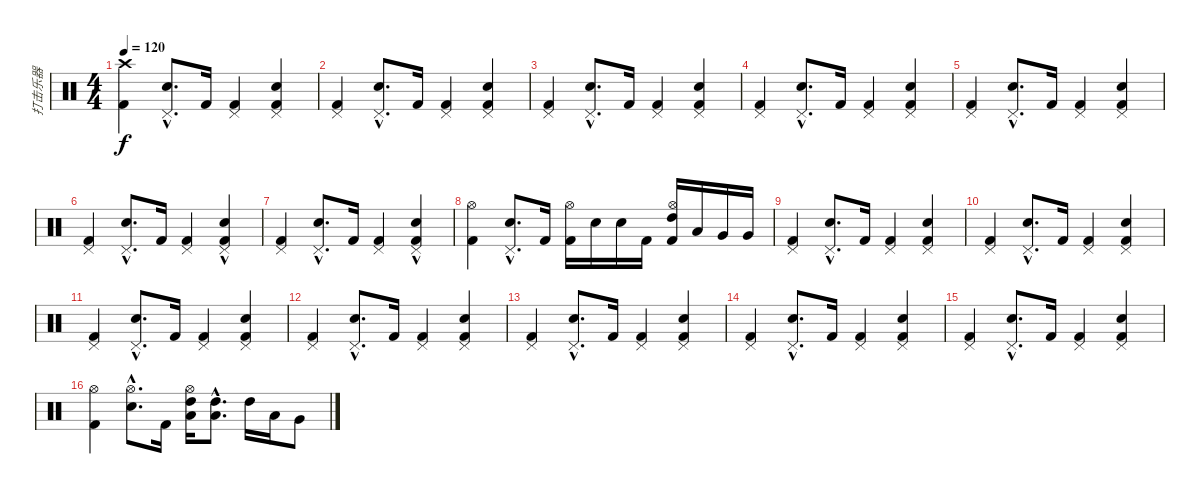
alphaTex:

\track ("打击乐器" "打击乐器") {instrument percussion}
\staff {score}
\articulation defaults
\ts (4 4)
\tempo 120
\clef neutral
\ks c
("Crash high (hit)" "Kick (hit) 2").4{dy f} ("Pedal Hi-Hat (hit)"{hac} "Snare (hit) 2"{hac}).8{d} "Kick (hit) 2".16 ("Pedal Hi-Hat (hit)" "Kick (hit) 2").4 ("Pedal Hi-Hat (hit)" "Snare (hit) 2" "Kick (hit) 2").4 |
("Pedal Hi-Hat (hit)" "Kick (hit) 2").4 ("Pedal Hi-Hat (hit)"{hac} "Snare (hit) 2"{hac}).8{d} "Kick (hit) 2".16 ("Pedal Hi-Hat (hit)" "Kick (hit) 2").4 ("Pedal Hi-Hat (hit)" "Snare (hit) 2" "Kick (hit) 2").4 |
("Pedal Hi-Hat (hit)" "Kick (hit) 2").4 ("Pedal Hi-Hat (hit)"{hac} "Snare (hit) 2"{hac}).8{d} "Kick (hit) 2".16 ("Pedal Hi-Hat (hit)" "Kick (hit) 2").4 ("Pedal Hi-Hat (hit)" "Snare (hit) 2" "Kick (hit) 2").4 |
("Pedal Hi-Hat (hit)" "Kick (hit) 2").4 ("Pedal Hi-Hat (hit)"{hac} "Snare (hit) 2"{hac}).8{d} "Kick (hit) 2".16 ("Pedal Hi-Hat (hit)" "Kick (hit) 2").4 ("Pedal Hi-Hat (hit)" "Snare (hit) 2" "Kick (hit) 2").4 |
("Pedal Hi-Hat (hit)" "Kick (hit) 2").4 ("Pedal Hi-Hat (hit)"{hac} "Snare (hit) 2"{hac}).8{d} "Kick (hit) 2".16 ("Pedal Hi-Hat (hit)" "Kick (hit) 2").4 ("Pedal Hi-Hat (hit)" "Snare (hit) 2" "Kick (hit) 2").4 |
("Pedal Hi-Hat (hit)" "Kick (hit) 2").4 ("Pedal Hi-Hat (hit)"{hac} "Snare (hit) 2"{hac}).8{d} "Kick (hit) 2".16 ("Pedal Hi-Hat (hit)" "Kick (hit) 2").4 ("Pedal Hi-Hat (hit)"{hac} "Snare (hit) 2" "Kick (hit) 2").4 |
("Pedal Hi-Hat (hit)" "Kick (hit) 2").4 ("Pedal Hi-Hat (hit)"{hac} "Snare (hit) 2"{hac}).8{d} "Kick (hit) 2".16 ("Pedal Hi-Hat (hit)" "Kick (hit) 2").4 ("Pedal Hi-Hat (hit)"{hac} "Snare (hit) 2" "Kick (hit) 2").4 |
("Hi-Hat (open)" "Kick (hit) 2").4 ("Pedal Hi-Hat (hit)"{hac} "Snare (hit) 2"{hac}).8{d} "Kick (hit) 2".16 ("Hi-Hat (open)" "Kick (hit) 2").16 "Snare (hit) 2".16 "Snare (hit) 2".16 "Kick (hit) 2".16 ("Hi-Hat (open)" "High Tom (hit)" "Kick (hit) 2").16 "Low Tom (hit)".16 "Very Low Tom (hit)".16 "Very Low Tom (hit)".16 |
("Pedal Hi-Hat (hit)" "Kick (hit) 2").4 ("Pedal Hi-Hat (hit)"{hac} "Snare (hit) 2"{hac}).8{d} "Kick (hit) 2".16 ("Pedal Hi-Hat (hit)" "Kick (hit) 2").4 ("Pedal Hi-Hat (hit)" "Snare (hit) 2" "Kick (hit) 2").4 |
("Pedal Hi-Hat (hit)" "Kick (hit) 2").4 ("Pedal Hi-Hat (hit)"{hac} "Snare (hit) 2"{hac}).8{d} "Kick (hit) 2".16 ("Pedal Hi-Hat (hit)" "Kick (hit) 2").4 ("Pedal Hi-Hat (hit)" "Snare (hit) 2" "Kick (hit) 2").4 |
("Pedal Hi-Hat (hit)" "Kick (hit) 2").4 ("Pedal Hi-Hat (hit)"{hac} "Snare (hit) 2"{hac}).8{d} "Kick (hit) 2".16 ("Pedal Hi-Hat (hit)" "Kick (hit) 2").4 ("Pedal Hi-Hat (hit)" "Snare (hit) 2" "Kick (hit) 2").4 |
("Pedal Hi-Hat (hit)" "Kick (hit) 2").4 ("Pedal Hi-Hat (hit)"{hac} "Snare (hit) 2"{hac}).8{d} "Kick (hit) 2".16 ("Pedal Hi-Hat (hit)" "Kick (hit) 2").4 ("Pedal Hi-Hat (hit)" "Snare (hit) 2" "Kick (hit) 2").4 |
("Pedal Hi-Hat (hit)" "Kick (hit) 2").4 ("Pedal Hi-Hat (hit)"{hac} "Snare (hit) 2"{hac}).8{d} "Kick (hit) 2".16 ("Pedal Hi-Hat (hit)" "Kick (hit) 2").4 ("Pedal Hi-Hat (hit)" "Snare (hit) 2" "Kick (hit) 2").4 |
("Pedal Hi-Hat (hit)" "Kick (hit) 2").4 ("Pedal Hi-Hat (hit)"{hac} "Snare (hit) 2"{hac}).8{d} "Kick (hit) 2".16 ("Pedal Hi-Hat (hit)" "Kick (hit) 2").4 ("Pedal Hi-Hat (hit)" "Snare (hit) 2" "Kick (hit) 2").4 |
("Pedal Hi-Hat (hit)" "Kick (hit) 2").4 ("Pedal Hi-Hat (hit)"{hac} "Snare (hit) 2"{hac}).8{d} "Kick (hit) 2".16 ("Pedal Hi-Hat (hit)" "Kick (hit) 2").4 ("Pedal Hi-Hat (hit)" "Snare (hit) 2" "Kick (hit) 2").4 |
("Hi-Hat (open)" "Kick (hit) 2").4 ("Hi-Hat (open)"{hac} "Snare (hit) 2"{hac}).8{d} "Kick (hit) 2".16 ("Hi-Hat (open)" "Low Tom (hit)" "High Tom (hit)").16 ("Low Tom (hit)"{hac} "High Tom (hit)"{hac}).8{d} "High Tom (hit)".16 "Low Tom (hit)".16 "Very Low Tom (hit)".8
